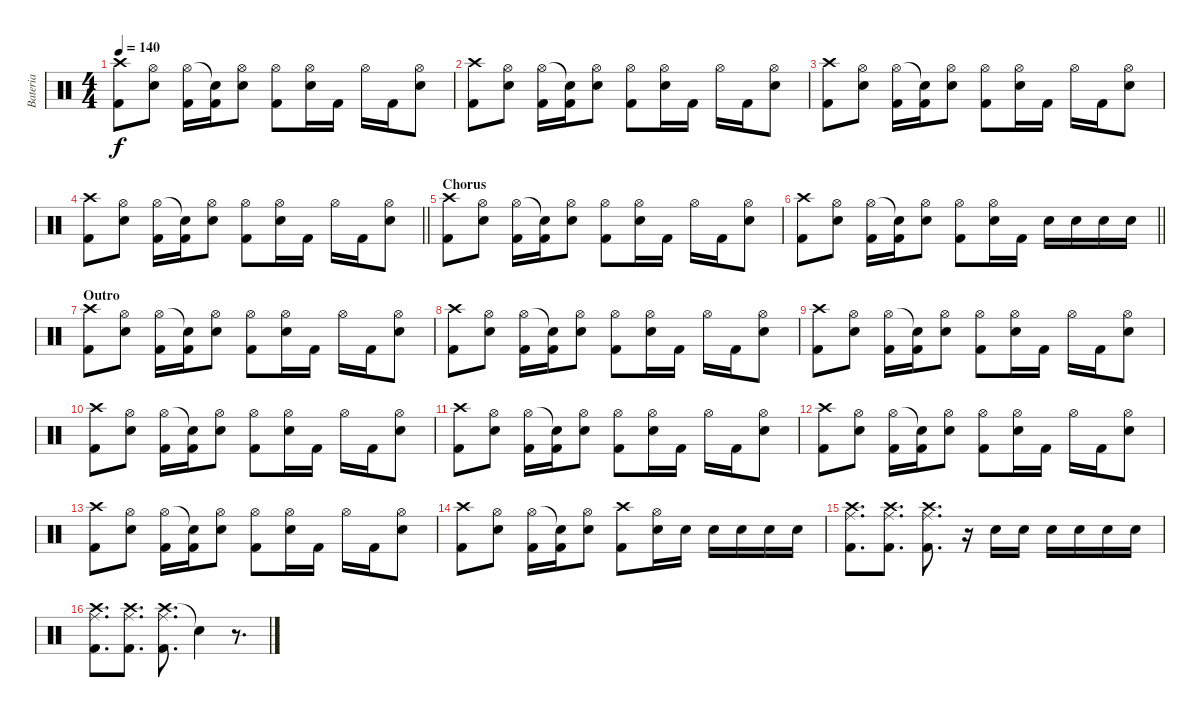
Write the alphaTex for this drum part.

\track ("Bateria" "Bateria") {instrument percussion}
\staff {score}
\articulation defaults
\ts (4 4)
\tempo 140
\clef neutral
\ks c
("Crash high (hit)" "Kick (hit) 2").8{dy f} ("Hi-Hat (open)" "Electric Snare (hit)").8 ("Hi-Hat (open)" "Kick (hit) 2").16 ("Snare (hit)"{t} "Kick (hit) 2").16 ("Hi-Hat (open)" "Electric Snare (hit)").8 ("Hi-Hat (open)" "Kick (hit) 2").8 ("Hi-Hat (open)" "Electric Snare (hit)").16 "Kick (hit) 2".16 "Hi-Hat (open)".16 "Kick (hit) 2".16 ("Hi-Hat (open)" "Electric Snare (hit)").8 |
("Crash high (hit)" "Kick (hit) 2").8 ("Hi-Hat (open)" "Electric Snare (hit)").8 ("Hi-Hat (open)" "Kick (hit) 2").16 ("Snare (hit)"{t} "Kick (hit) 2").16 ("Hi-Hat (open)" "Electric Snare (hit)").8 ("Hi-Hat (open)" "Kick (hit) 2").8 ("Hi-Hat (open)" "Electric Snare (hit)").16 "Kick (hit) 2".16 "Hi-Hat (open)".16 "Kick (hit) 2".16 ("Hi-Hat (open)" "Electric Snare (hit)").8 |
("Crash high (hit)" "Kick (hit) 2").8 ("Hi-Hat (open)" "Electric Snare (hit)").8 ("Hi-Hat (open)" "Kick (hit) 2").16 ("Snare (hit)"{t} "Kick (hit) 2").16 ("Hi-Hat (open)" "Electric Snare (hit)").8 ("Hi-Hat (open)" "Kick (hit) 2").8 ("Hi-Hat (open)" "Electric Snare (hit)").16 "Kick (hit) 2".16 "Hi-Hat (open)".16 "Kick (hit) 2".16 ("Hi-Hat (open)" "Electric Snare (hit)").8 |
\barLineRight lightlight
("Crash high (hit)" "Kick (hit) 2").8 ("Hi-Hat (open)" "Electric Snare (hit)").8 ("Hi-Hat (open)" "Kick (hit) 2").16 ("Snare (hit)"{t} "Kick (hit) 2").16 ("Hi-Hat (open)" "Electric Snare (hit)").8 ("Hi-Hat (open)" "Kick (hit) 2").8 ("Hi-Hat (open)" "Electric Snare (hit)").16 "Kick (hit) 2".16 "Hi-Hat (open)".16 "Kick (hit) 2".16 ("Hi-Hat (open)" "Electric Snare (hit)").8 |
\section ("" "Chorus")
("Crash high (hit)" "Kick (hit) 2").8 ("Hi-Hat (open)" "Electric Snare (hit)").8 ("Hi-Hat (open)" "Kick (hit) 2").16 ("Snare (hit)"{t} "Kick (hit) 2").16 ("Hi-Hat (open)" "Electric Snare (hit)").8 ("Hi-Hat (open)" "Kick (hit) 2").8 ("Hi-Hat (open)" "Electric Snare (hit)").16 "Kick (hit) 2".16 "Hi-Hat (open)".16 "Kick (hit) 2".16 ("Hi-Hat (open)" "Electric Snare (hit)").8 |
\barLineRight lightlight
("Crash high (hit)" "Kick (hit) 2").8 ("Hi-Hat (open)" "Electric Snare (hit)").8 ("Hi-Hat (open)" "Kick (hit) 2").16 ("Snare (hit)"{t} "Kick (hit) 2").16 ("Hi-Hat (open)" "Electric Snare (hit)").8 ("Hi-Hat (open)" "Kick (hit) 2").8 ("Hi-Hat (open)" "Electric Snare (hit)").16 "Kick (hit) 2".16 "Electric Snare (hit)".16 "Electric Snare (hit)".16 "Electric Snare (hit)".16 "Electric Snare (hit)".16 |
\section ("" "Outro")
("Crash high (hit)" "Kick (hit) 2").8 ("Hi-Hat (open)" "Electric Snare (hit)").8 ("Hi-Hat (open)" "Kick (hit) 2").16 ("Snare (hit)"{t} "Kick (hit) 2").16 ("Hi-Hat (open)" "Electric Snare (hit)").8 ("Hi-Hat (open)" "Kick (hit) 2").8 ("Hi-Hat (open)" "Electric Snare (hit)").16 "Kick (hit) 2".16 "Hi-Hat (open)".16 "Kick (hit) 2".16 ("Hi-Hat (open)" "Electric Snare (hit)").8 |
("Crash high (hit)" "Kick (hit) 2").8 ("Hi-Hat (open)" "Electric Snare (hit)").8 ("Hi-Hat (open)" "Kick (hit) 2").16 ("Snare (hit)"{t} "Kick (hit) 2").16 ("Hi-Hat (open)" "Electric Snare (hit)").8 ("Hi-Hat (open)" "Kick (hit) 2").8 ("Hi-Hat (open)" "Electric Snare (hit)").16 "Kick (hit) 2".16 "Hi-Hat (open)".16 "Kick (hit) 2".16 ("Hi-Hat (open)" "Electric Snare (hit)").8 |
("Crash high (hit)" "Kick (hit) 2").8 ("Hi-Hat (open)" "Electric Snare (hit)").8 ("Hi-Hat (open)" "Kick (hit) 2").16 ("Snare (hit)"{t} "Kick (hit) 2").16 ("Hi-Hat (open)" "Electric Snare (hit)").8 ("Hi-Hat (open)" "Kick (hit) 2").8 ("Hi-Hat (open)" "Electric Snare (hit)").16 "Kick (hit) 2".16 "Hi-Hat (open)".16 "Kick (hit) 2".16 ("Hi-Hat (open)" "Electric Snare (hit)").8 |
("Crash high (hit)" "Kick (hit) 2").8 ("Hi-Hat (open)" "Electric Snare (hit)").8 ("Hi-Hat (open)" "Kick (hit) 2").16 ("Snare (hit)"{t} "Kick (hit) 2").16 ("Hi-Hat (open)" "Electric Snare (hit)").8 ("Hi-Hat (open)" "Kick (hit) 2").8 ("Hi-Hat (open)" "Electric Snare (hit)").16 "Kick (hit) 2".16 "Hi-Hat (open)".16 "Kick (hit) 2".16 ("Hi-Hat (open)" "Electric Snare (hit)").8 |
("Crash high (hit)" "Kick (hit) 2").8 ("Hi-Hat (open)" "Electric Snare (hit)").8 ("Hi-Hat (open)" "Kick (hit) 2").16 ("Snare (hit)"{t} "Kick (hit) 2").16 ("Hi-Hat (open)" "Electric Snare (hit)").8 ("Hi-Hat (open)" "Kick (hit) 2").8 ("Hi-Hat (open)" "Electric Snare (hit)").16 "Kick (hit) 2".16 "Hi-Hat (open)".16 "Kick (hit) 2".16 ("Hi-Hat (open)" "Electric Snare (hit)").8 |
("Crash high (hit)" "Kick (hit) 2").8 ("Hi-Hat (open)" "Electric Snare (hit)").8 ("Hi-Hat (open)" "Kick (hit) 2").16 ("Snare (hit)"{t} "Kick (hit) 2").16 ("Hi-Hat (open)" "Electric Snare (hit)").8 ("Hi-Hat (open)" "Kick (hit) 2").8 ("Hi-Hat (open)" "Electric Snare (hit)").16 "Kick (hit) 2".16 "Hi-Hat (open)".16 "Kick (hit) 2".16 ("Hi-Hat (open)" "Electric Snare (hit)").8 |
("Crash high (hit)" "Kick (hit) 2").8 ("Hi-Hat (open)" "Electric Snare (hit)").8 ("Hi-Hat (open)" "Kick (hit) 2").16 ("Snare (hit)"{t} "Kick (hit) 2").16 ("Hi-Hat (open)" "Electric Snare (hit)").8 ("Hi-Hat (open)" "Kick (hit) 2").8 ("Hi-Hat (open)" "Electric Snare (hit)").16 "Kick (hit) 2".16 "Hi-Hat (open)".16 "Kick (hit) 2".16 ("Hi-Hat (open)" "Electric Snare (hit)").8 |
("Crash high (hit)" "Kick (hit) 2").8 ("Hi-Hat (open)" "Electric Snare (hit)").8 ("Hi-Hat (open)" "Kick (hit) 2").16 ("Snare (hit)"{t} "Kick (hit) 2").16 ("Hi-Hat (open)" "Electric Snare (hit)").8 ("Crash high (hit)" "Kick (hit) 2").8 ("Hi-Hat (open)" "Electric Snare (hit)").16 "Electric Snare (hit)".16 "Electric Snare (hit)".16 "Electric Snare (hit)".16 "Electric Snare (hit)".16 "Electric Snare (hit)".16 |
("Crash high (hit)" "Ride (middle)" "Kick (hit) 2").8{d} ("Crash high (hit)" "Ride (middle)" "Kick (hit) 2").8{d} ("Crash high (hit)" "Ride (middle)" "Kick (hit) 2").8{d} r.16 "Electric Snare (hit)".16 "Electric Snare (hit)".16 "Electric Snare (hit)".16 "Electric Snare (hit)".16 "Electric Snare (hit)".16 "Electric Snare (hit)".16 |
("Crash high (hit)" "Ride (middle)" "Kick (hit) 2").8{d} ("Crash high (hit)" "Ride (middle)" "Kick (hit) 2").8{d} ("Crash high (hit)" "Ride (middle)" "Kick (hit) 2").8{d} "Snare (hit)"{t}.4 r.8{d}
